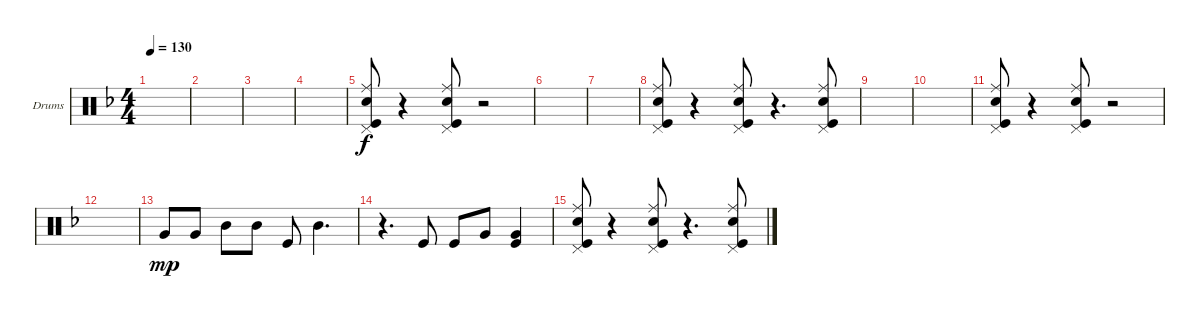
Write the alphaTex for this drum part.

\defaultSystemsLayout 4
\bracketExtendMode groupsimilarinstruments
\firstSystemTrackNameOrientation horizontal
\otherSystemsTrackNameOrientation horizontal
\track ("Drumkit" "Drums") {instrument percussion}
\staff {score}
\articulation defaults
\ts (4 4)
\tempo 130
\clef neutral
\ks f
|
|
|
|
("Pedal Hi-Hat (hit)" "Kick (hit)" "Ride (middle)" "Snare (hit) 2").8 r.4 ("Ride (middle)" "Kick (hit)" "Pedal Hi-Hat (hit)" "Snare (hit) 2").8 r.2 |
|
|
("Pedal Hi-Hat (hit)" "Kick (hit)" "Ride (middle)" "Snare (hit) 2").8 r.4 ("Ride (middle)" "Kick (hit)" "Pedal Hi-Hat (hit)" "Snare (hit) 2").8 r.4{d} ("Ride (middle)" "Snare (hit) 2" "Kick (hit)" "Pedal Hi-Hat (hit)").8 |
|
|
("Pedal Hi-Hat (hit)" "Kick (hit)" "Ride (middle)" "Snare (hit) 2").8 r.4 ("Ride (middle)" "Kick (hit)" "Pedal Hi-Hat (hit)" "Snare (hit) 2").8 r.2 |
|
"Very Low Tom (hit)".8{dy mp} "Very Low Tom (hit)".8 "Mid Tom (hit)".8 "Mid Tom (hit)".8 "Kick (hit)".8 "Mid Tom (hit)".4{d} |
r.4{d} "Kick (hit)".8 "Kick (hit)".8 "Very Low Tom (hit)".8 ("Very Low Tom (hit)" "Kick (hit)").4 |
("Pedal Hi-Hat (hit)" "Kick (hit)" "Ride (middle)" "Snare (hit) 2").8 r.4 ("Ride (middle)" "Kick (hit)" "Pedal Hi-Hat (hit)" "Snare (hit) 2").8 r.4{d} ("Ride (middle)" "Snare (hit) 2" "Kick (hit)" "Pedal Hi-Hat (hit)").8
